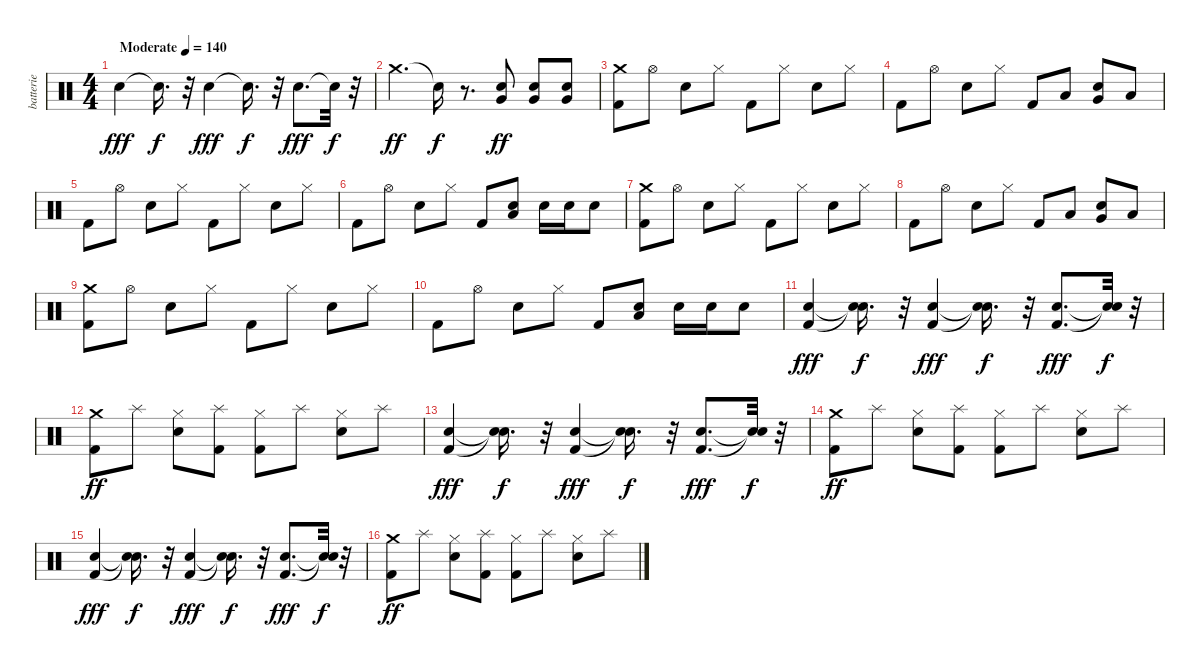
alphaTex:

\track ("batterie" "batterie") {instrument percussion}
\staff {score}
\articulation defaults
\ts (4 4)
\tempo (140 "Moderate")
\clef neutral
\ks c "Electric Snare (hit)".4{dy fff} "Snare (hit)"{t}.16{d dy f}
r.32 "Electric Snare (hit)".4{dy fff} "Snare (hit)"{t}.16{d dy f} r.32 "Electric Snare (hit)".8{d dy fff} "Snare (hit)"{t}.32{dy f} r.32 |
"Crash medium (hit)".4{d dy ff} "Snare (hit)"{t}.16{dy f} r.8{d} ("Electric Snare (hit)" "Very Low Tom (hit)").8{dy ff} ("Electric Snare (hit)" "Very Low Tom (hit)").8 ("Electric Snare (hit)" "Very Low Tom (hit)").8 |
("Kick (hit) 2" "Crash medium (hit)").8 "Hi-Hat (open)".8 "Electric Snare (hit)".8 "Hi-Hat (closed)".8 "Kick (hit) 2".8 "Hi-Hat (closed)".8 "Electric Snare (hit)".8 "Hi-Hat (closed)".8 |
"Kick (hit) 2".8 "Hi-Hat (open)".8 "Electric Snare (hit)".8 "Hi-Hat (closed)".8 "Kick (hit) 2".8 "Low Tom (hit)".8 ("Electric Snare (hit)" "Very Low Tom (hit)").8 "Low Floor Tom (hit)".8 |
"Kick (hit) 2".8 "Hi-Hat (open)".8 "Electric Snare (hit)".8 "Hi-Hat (closed)".8 "Kick (hit) 2".8 "Hi-Hat (closed)".8 "Electric Snare (hit)".8 "Hi-Hat (closed)".8 |
"Kick (hit) 2".8 "Hi-Hat (open)".8 "Electric Snare (hit)".8 "Hi-Hat (closed)".8 "Kick (hit) 2".8 ("Electric Snare (hit)" "Low Tom (hit)").8 "Electric Snare (hit)".16 "Electric Snare (hit)".16 "Electric Snare (hit)".8 |
("Kick (hit) 2" "Crash medium (hit)").8 "Hi-Hat (open)".8 "Electric Snare (hit)".8 "Hi-Hat (closed)".8 "Kick (hit) 2".8 "Hi-Hat (closed)".8 "Electric Snare (hit)".8 "Hi-Hat (closed)".8 |
"Kick (hit) 2".8 "Hi-Hat (open)".8 "Electric Snare (hit)".8 "Hi-Hat (closed)".8 "Kick (hit) 2".8 "Low Tom (hit)".8 ("Electric Snare (hit)" "Very Low Tom (hit)").8 "Low Floor Tom (hit)".8 |
("Kick (hit) 2" "Crash medium (hit)").8 "Hi-Hat (open)".8 "Electric Snare (hit)".8 "Hi-Hat (closed)".8 "Kick (hit) 2".8 "Hi-Hat (closed)".8 "Electric Snare (hit)".8 "Hi-Hat (closed)".8 |
"Kick (hit) 2".8 "Hi-Hat (open)".8 "Electric Snare (hit)".8 "Hi-Hat (closed)".8 "Kick (hit) 2".8 ("Electric Snare (hit)" "Low Tom (hit)").8 "Electric Snare (hit)".16 "Electric Snare (hit)".16 "Electric Snare (hit)".8 |
("Kick (hit) 2" "Electric Snare (hit)").4{dy fff} ("Snare (hit)"{t} "Snare (hit)"{t}).16{d dy f} r.32 ("Kick (hit) 2" "Electric Snare (hit)").4{dy fff} ("Snare (hit)"{t} "Snare (hit)"{t}).16{d dy f} r.32 ("Kick (hit) 2" "Electric Snare (hit)").8{d dy fff} ("Snare (hit)"{t} "Snare (hit)"{t}).32{dy f} r.32 |
("Kick (hit) 2" "Crash medium (hit)").8{dy ff} "Splash (hit)".8 ("Electric Snare (hit)" "Hi-Hat (closed)").8 ("Kick (hit) 2" "Splash (hit)").8 ("Kick (hit) 2" "Hi-Hat (closed)").8 "Splash (hit)".8 ("Electric Snare (hit)" "Hi-Hat (closed)").8 "Splash (hit)".8 |
("Kick (hit) 2" "Electric Snare (hit)").4{dy fff} ("Snare (hit)"{t} "Snare (hit)"{t}).16{d dy f} r.32 ("Kick (hit) 2" "Electric Snare (hit)").4{dy fff} ("Snare (hit)"{t} "Snare (hit)"{t}).16{d dy f} r.32 ("Kick (hit) 2" "Electric Snare (hit)").8{d dy fff} ("Snare (hit)"{t} "Snare (hit)"{t}).32{dy f} r.32 |
("Kick (hit) 2" "Crash medium (hit)").8{dy ff} "Splash (hit)".8 ("Electric Snare (hit)" "Hi-Hat (closed)").8 ("Kick (hit) 2" "Splash (hit)").8 ("Kick (hit) 2" "Hi-Hat (closed)").8 "Splash (hit)".8 ("Electric Snare (hit)" "Hi-Hat (closed)").8 "Splash (hit)".8 |
("Kick (hit) 2" "Electric Snare (hit)").4{dy fff} ("Snare (hit)"{t} "Snare (hit)"{t}).16{d dy f} r.32 ("Kick (hit) 2" "Electric Snare (hit)").4{dy fff} ("Snare (hit)"{t} "Snare (hit)"{t}).16{d dy f} r.32 ("Kick (hit) 2" "Electric Snare (hit)").8{d dy fff} ("Snare (hit)"{t} "Snare (hit)"{t}).32{dy f} r.32 |
("Kick (hit) 2" "Crash medium (hit)").8{dy ff} "Splash (hit)".8 ("Electric Snare (hit)" "Hi-Hat (closed)").8 ("Kick (hit) 2" "Splash (hit)").8 ("Kick (hit) 2" "Hi-Hat (closed)").8 "Splash (hit)".8 ("Electric Snare (hit)" "Hi-Hat (closed)").8 "Splash (hit)".8
